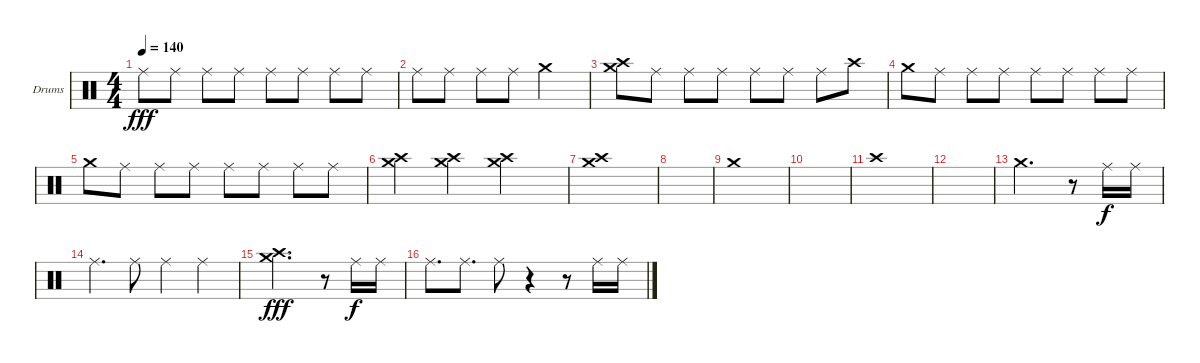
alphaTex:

\defaultSystemsLayout 4
\bracketExtendMode groupsimilarinstruments
\firstSystemTrackNameOrientation horizontal
\otherSystemsTrackNameOrientation horizontal
\track ("Helders" "Drums") {instrument percussion}
\staff {score}
\articulation defaults
\ts (4 4)
\tempo 140
\clef neutral
\ks c "Ride (middle)".8{dy fff} "Ride (middle)".8 "Ride (middle)".8 "Ride (middle)".8 "Ride (middle)".8 "Ride (middle)".8 "Ride (middle)".8 "Ride (middle)".8
|
"Ride (middle)".8 "Ride (middle)".8 "Ride (middle)".8 "Ride (middle)".8 "Crash medium (hit)".2 |
("Crash high (hit)" "Crash medium (hit)").8 "Ride (middle)".8 "Ride (middle)".8 "Ride (middle)".8 "Ride (middle)".8 "Ride (middle)".8 "Ride (middle)".8 "Crash high (hit)".8 |
"Crash medium (hit)".8 "Ride (middle)".8 "Ride (middle)".8 "Ride (middle)".8 "Ride (middle)".8 "Ride (middle)".8 "Ride (middle)".8 "Ride (middle)".8 |
"Crash medium (hit)".8 "Ride (middle)".8 "Ride (middle)".8 "Ride (middle)".8 "Ride (middle)".8 "Ride (middle)".8 "Ride (middle)".8 "Ride (middle)".8 |
("Crash medium (hit)" "Crash high (hit)").4 ("Crash medium (hit)" "Crash high (hit)").4 ("Crash medium (hit)" "Crash high (hit)").2 |
("Crash high (hit)" "Crash medium (hit)").1 |
|
"Crash medium (hit)".1 |
|
"Crash high (hit)".1 |
|
"Crash medium (hit)".2{d} r.8 "Ride (middle)".16{dy f} "Ride (middle)".16 |
"Ride (middle)".4{d} "Ride (middle)".8 "Ride (middle)".4 "Ride (middle)".4 |
("Crash medium (hit)" "Crash high (hit)").2{d dy fff} r.8 "Ride (middle)".16{dy f} "Ride (middle)".16 |
"Ride (middle)".8{d} "Ride (middle)".8{d} "Ride (middle)".8 r.4 r.8 "Ride (middle)".16 "Ride (middle)".16
